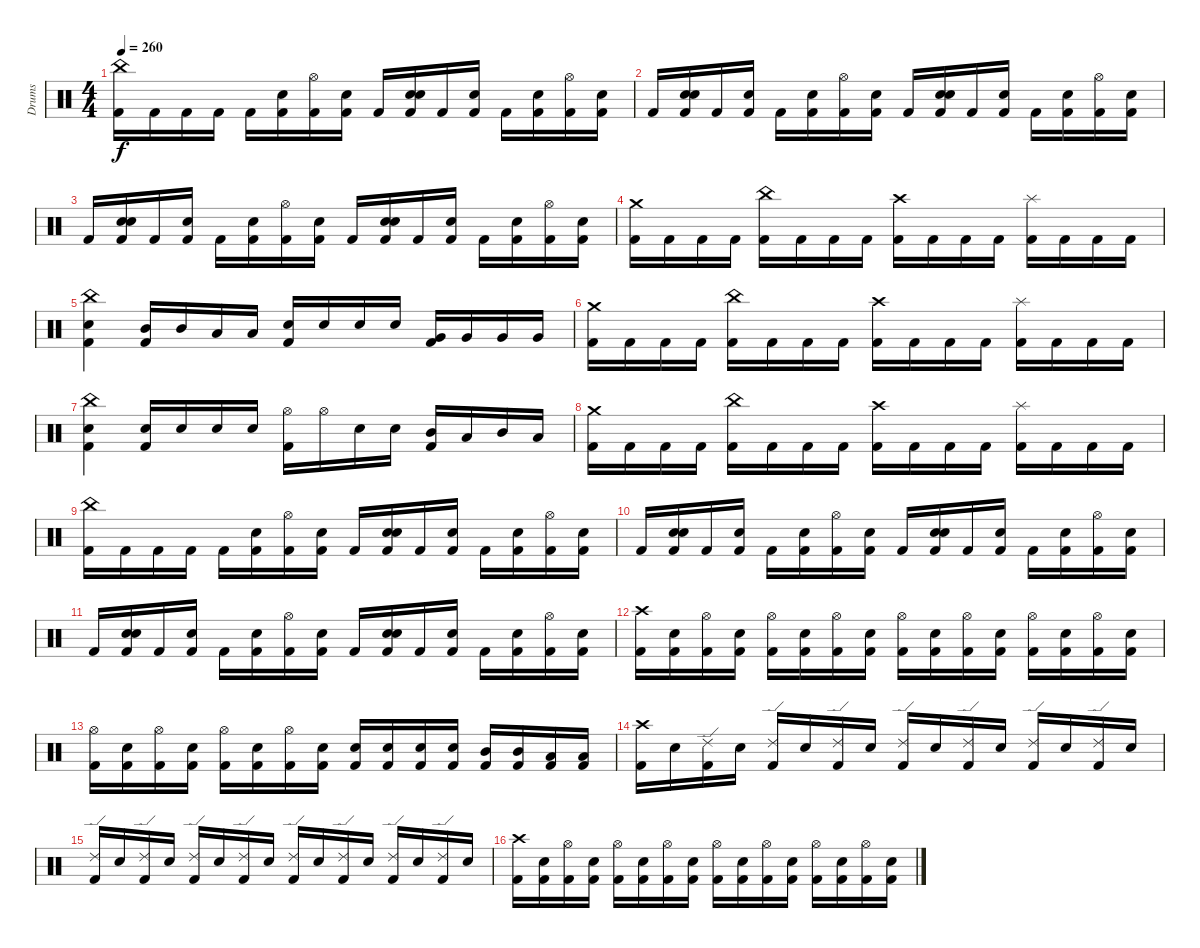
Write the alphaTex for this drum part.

\track ("Drums" "Drums") {instrument percussion}
\staff {score}
\articulation defaults
\ts (4 4)
\tempo 260
\clef neutral
\ks c
("China (hit)" "Kick (hit) 2").16{dy f} "Kick (hit) 2".16 "Kick (hit) 2".16 "Kick (hit) 2".16 "Kick (hit) 2".16 ("Snare (hit) 2" "Kick (hit) 2").16 ("Hi-Hat (open)" "Kick (hit) 2").16 ("Snare (hit) 2" "Kick (hit) 2").16 "Kick (hit) 2".16 ("Electric Snare (hit)" "Snare (hit) 2" "Kick (hit) 2").16 "Kick (hit) 2".16 ("Snare (hit) 2" "Kick (hit) 2").16 "Kick (hit) 2".16 ("Snare (hit) 2" "Kick (hit) 2").16 ("Hi-Hat (open)" "Kick (hit) 2").16 ("Snare (hit) 2" "Kick (hit) 2").16 |
"Kick (hit) 2".16 ("Electric Snare (hit)" "Snare (hit) 2" "Kick (hit) 2").16 "Kick (hit) 2".16 ("Snare (hit) 2" "Kick (hit) 2").16 "Kick (hit) 2".16 ("Snare (hit) 2" "Kick (hit) 2").16 ("Hi-Hat (open)" "Kick (hit) 2").16 ("Snare (hit) 2" "Kick (hit) 2").16 "Kick (hit) 2".16 ("Electric Snare (hit)" "Snare (hit) 2" "Kick (hit) 2").16 "Kick (hit) 2".16 ("Snare (hit) 2" "Kick (hit) 2").16 "Kick (hit) 2".16 ("Snare (hit) 2" "Kick (hit) 2").16 ("Hi-Hat (open)" "Kick (hit) 2").16 ("Snare (hit) 2" "Kick (hit) 2").16 |
"Kick (hit) 2".16 ("Electric Snare (hit)" "Snare (hit) 2" "Kick (hit) 2").16 "Kick (hit) 2".16 ("Snare (hit) 2" "Kick (hit) 2").16 "Kick (hit) 2".16 ("Snare (hit) 2" "Kick (hit) 2").16 ("Hi-Hat (open)" "Kick (hit) 2").16 ("Snare (hit) 2" "Kick (hit) 2").16 "Kick (hit) 2".16 ("Electric Snare (hit)" "Snare (hit) 2" "Kick (hit) 2").16 "Kick (hit) 2".16 ("Snare (hit) 2" "Kick (hit) 2").16 "Kick (hit) 2".16 ("Snare (hit) 2" "Kick (hit) 2").16 ("Hi-Hat (open)" "Kick (hit) 2").16 ("Snare (hit) 2" "Kick (hit) 2").16 |
("Crash medium (hit)" "Kick (hit) 2").16 "Kick (hit) 2".16 "Kick (hit) 2".16 "Kick (hit) 2".16 ("China (hit)" "Kick (hit) 2").16 "Kick (hit) 2".16 "Kick (hit) 2".16 "Kick (hit) 2".16 ("Crash high (hit)" "Kick (hit) 2").16 "Kick (hit) 2".16 "Kick (hit) 2".16 "Kick (hit) 2".16 ("Splash (hit)" "Kick (hit) 2").16 "Kick (hit) 2".16 "Kick (hit) 2".16 "Kick (hit) 2".16 |
("China (hit)" "Snare (hit) 2" "Kick (hit) 2").4 ("Mid Tom (hit)" "Kick (hit) 2").16 "Mid Tom (hit)".16 "Low Tom (hit)".16 "Low Tom (hit)".16 ("Snare (hit) 2" "Kick (hit) 2").16 "Snare (hit) 2".16 "Snare (hit) 2".16 "Snare (hit) 2".16 ("Very Low Tom (hit)" "Kick (hit) 2").16 "Very Low Tom (hit)".16 "Very Low Tom (hit)".16 "Very Low Tom (hit)".16 |
("Crash medium (hit)" "Kick (hit) 2").16 "Kick (hit) 2".16 "Kick (hit) 2".16 "Kick (hit) 2".16 ("China (hit)" "Kick (hit) 2").16 "Kick (hit) 2".16 "Kick (hit) 2".16 "Kick (hit) 2".16 ("Crash high (hit)" "Kick (hit) 2").16 "Kick (hit) 2".16 "Kick (hit) 2".16 "Kick (hit) 2".16 ("Splash (hit)" "Kick (hit) 2").16 "Kick (hit) 2".16 "Kick (hit) 2".16 "Kick (hit) 2".16 |
("China (hit)" "Snare (hit) 2" "Kick (hit) 2").4 ("Snare (hit) 2" "Kick (hit) 2").16 "Snare (hit) 2".16 "Snare (hit) 2".16 "Snare (hit) 2".16 ("Hi-Hat (open)" "Kick (hit) 2").16 "Hi-Hat (open)".16 "Snare (hit) 2".16 "Snare (hit) 2".16 ("Mid Tom (hit)" "Kick (hit) 2").16 "Low Tom (hit)".16 "Mid Tom (hit)".16 "Low Tom (hit)".16 |
("Crash medium (hit)" "Kick (hit) 2").16 "Kick (hit) 2".16 "Kick (hit) 2".16 "Kick (hit) 2".16 ("China (hit)" "Kick (hit) 2").16 "Kick (hit) 2".16 "Kick (hit) 2".16 "Kick (hit) 2".16 ("Crash high (hit)" "Kick (hit) 2").16 "Kick (hit) 2".16 "Kick (hit) 2".16 "Kick (hit) 2".16 ("Splash (hit)" "Kick (hit) 2").16 "Kick (hit) 2".16 "Kick (hit) 2".16 "Kick (hit) 2".16 |
("China (hit)" "Kick (hit) 2").16 "Kick (hit) 2".16 "Kick (hit) 2".16 "Kick (hit) 2".16 "Kick (hit) 2".16 ("Snare (hit) 2" "Kick (hit) 2").16 ("Hi-Hat (open)" "Kick (hit) 2").16 ("Snare (hit) 2" "Kick (hit) 2").16 "Kick (hit) 2".16 ("Electric Snare (hit)" "Snare (hit) 2" "Kick (hit) 2").16 "Kick (hit) 2".16 ("Snare (hit) 2" "Kick (hit) 2").16 "Kick (hit) 2".16 ("Snare (hit) 2" "Kick (hit) 2").16 ("Hi-Hat (open)" "Kick (hit) 2").16 ("Snare (hit) 2" "Kick (hit) 2").16 |
"Kick (hit) 2".16 ("Electric Snare (hit)" "Snare (hit) 2" "Kick (hit) 2").16 "Kick (hit) 2".16 ("Snare (hit) 2" "Kick (hit) 2").16 "Kick (hit) 2".16 ("Snare (hit) 2" "Kick (hit) 2").16 ("Hi-Hat (open)" "Kick (hit) 2").16 ("Snare (hit) 2" "Kick (hit) 2").16 "Kick (hit) 2".16 ("Electric Snare (hit)" "Snare (hit) 2" "Kick (hit) 2").16 "Kick (hit) 2".16 ("Snare (hit) 2" "Kick (hit) 2").16 "Kick (hit) 2".16 ("Snare (hit) 2" "Kick (hit) 2").16 ("Hi-Hat (open)" "Kick (hit) 2").16 ("Snare (hit) 2" "Kick (hit) 2").16 |
"Kick (hit) 2".16 ("Electric Snare (hit)" "Snare (hit) 2" "Kick (hit) 2").16 "Kick (hit) 2".16 ("Snare (hit) 2" "Kick (hit) 2").16 "Kick (hit) 2".16 ("Snare (hit) 2" "Kick (hit) 2").16 ("Hi-Hat (open)" "Kick (hit) 2").16 ("Snare (hit) 2" "Kick (hit) 2").16 "Kick (hit) 2".16 ("Electric Snare (hit)" "Snare (hit) 2" "Kick (hit) 2").16 "Kick (hit) 2".16 ("Snare (hit) 2" "Kick (hit) 2").16 "Kick (hit) 2".16 ("Snare (hit) 2" "Kick (hit) 2").16 ("Hi-Hat (open)" "Kick (hit) 2").16 ("Snare (hit) 2" "Kick (hit) 2").16 |
("Crash high (hit)" "Kick (hit) 2").16 ("Snare (hit) 2" "Kick (hit) 2").16 ("Hi-Hat (open)" "Kick (hit) 2").16 ("Snare (hit) 2" "Kick (hit) 2").16 ("Hi-Hat (open)" "Kick (hit) 2").16 ("Snare (hit) 2" "Kick (hit) 2").16 ("Hi-Hat (open)" "Kick (hit) 2").16 ("Snare (hit) 2" "Kick (hit) 2").16 ("Hi-Hat (open)" "Kick (hit) 2").16 ("Snare (hit) 2" "Kick (hit) 2").16 ("Hi-Hat (open)" "Kick (hit) 2").16 ("Snare (hit) 2" "Kick (hit) 2").16 ("Hi-Hat (open)" "Kick (hit) 2").16 ("Snare (hit) 2" "Kick (hit) 2").16 ("Hi-Hat (open)" "Kick (hit) 2").16 ("Snare (hit) 2" "Kick (hit) 2").16 |
("Hi-Hat (open)" "Kick (hit) 2").16 ("Snare (hit) 2" "Kick (hit) 2").16 ("Hi-Hat (open)" "Kick (hit) 2").16 ("Snare (hit) 2" "Kick (hit) 2").16 ("Hi-Hat (open)" "Kick (hit) 2").16 ("Snare (hit) 2" "Kick (hit) 2").16 ("Hi-Hat (open)" "Kick (hit) 2").16 ("Snare (hit) 2" "Kick (hit) 2").16 ("Snare (hit) 2" "Kick (hit) 2").16 ("Snare (hit) 2" "Kick (hit) 2").16 ("Snare (hit) 2" "Kick (hit) 2").16 ("Snare (hit) 2" "Kick (hit) 2").16 ("Mid Tom (hit)" "Kick (hit) 2").16 ("Mid Tom (hit)" "Kick (hit) 2").16 ("Low Tom (hit)" "Kick (hit) 2").16 ("Low Tom (hit)" "Kick (hit) 2").16 |
("Crash high (hit)" "Kick (hit) 2").16 "Snare (hit) 2".16 ("Ride (edge) 2" "Kick (hit) 2").16 "Snare (hit) 2".16 ("Ride (edge) 2" "Kick (hit) 2").16 "Snare (hit) 2".16 ("Ride (edge) 2" "Kick (hit) 2").16 "Snare (hit) 2".16 ("Ride (edge) 2" "Kick (hit) 2").16 "Snare (hit) 2".16 ("Ride (edge) 2" "Kick (hit) 2").16 "Snare (hit) 2".16 ("Ride (edge) 2" "Kick (hit) 2").16 "Snare (hit) 2".16 ("Ride (edge) 2" "Kick (hit) 2").16 "Snare (hit) 2".16 |
("Ride (edge) 2" "Kick (hit) 2").16 "Snare (hit) 2".16 ("Ride (edge) 2" "Kick (hit) 2").16 "Snare (hit) 2".16 ("Ride (edge) 2" "Kick (hit) 2").16 "Snare (hit) 2".16 ("Ride (edge) 2" "Kick (hit) 2").16 "Snare (hit) 2".16 ("Ride (edge) 2" "Kick (hit) 2").16 "Snare (hit) 2".16 ("Ride (edge) 2" "Kick (hit) 2").16 "Snare (hit) 2".16 ("Ride (edge) 2" "Kick (hit) 2").16 "Snare (hit) 2".16 ("Ride (edge) 2" "Kick (hit) 2").16 "Snare (hit) 2".16 |
("Crash high (hit)" "Kick (hit) 2").16 ("Snare (hit) 2" "Kick (hit) 2").16 ("Hi-Hat (open)" "Kick (hit) 2").16 ("Snare (hit) 2" "Kick (hit) 2").16 ("Hi-Hat (open)" "Kick (hit) 2").16 ("Snare (hit) 2" "Kick (hit) 2").16 ("Hi-Hat (open)" "Kick (hit) 2").16 ("Snare (hit) 2" "Kick (hit) 2").16 ("Hi-Hat (open)" "Kick (hit) 2").16 ("Snare (hit) 2" "Kick (hit) 2").16 ("Hi-Hat (open)" "Kick (hit) 2").16 ("Snare (hit) 2" "Kick (hit) 2").16 ("Hi-Hat (open)" "Kick (hit) 2").16 ("Snare (hit) 2" "Kick (hit) 2").16 ("Hi-Hat (open)" "Kick (hit) 2").16 ("Snare (hit) 2" "Kick (hit) 2").16
